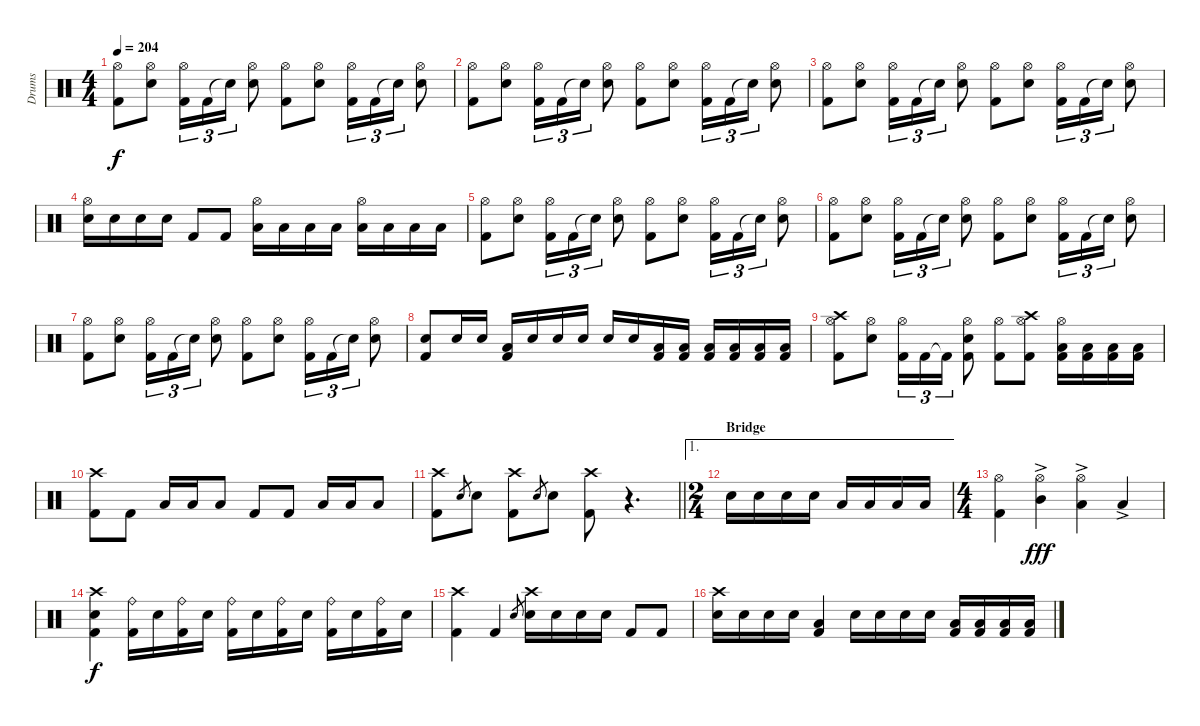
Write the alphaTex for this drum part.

\track ("Drums" "Drums") {instrument percussion}
\staff {score}
\articulation defaults
\ts (4 4)
\tempo 204
\clef neutral
\ks c
("Hi-Hat (open)" "Kick (hit) 2").8{dy f} ("Snare (hit) 2" "Hi-Hat (open)").8 ("Hi-Hat (open)" "Kick (hit) 2").16{tu (3 2)} "Kick (hit) 2".16{tu (3 2)} "Snare (hit)"{t}.16{tu (3 2)} ("Hi-Hat (open)" "Snare (hit) 2").8 ("Kick (hit) 2" "Hi-Hat (open)").8 ("Hi-Hat (open)" "Snare (hit) 2").8 ("Hi-Hat (open)" "Kick (hit) 2").16{tu (3 2)} "Kick (hit) 2".16{tu (3 2)} "Snare (hit) 2"{t}.16{tu (3 2)} ("Snare (hit) 2" "Hi-Hat (open)").8 |
("Hi-Hat (open)" "Kick (hit) 2").8 ("Snare (hit) 2" "Hi-Hat (open)").8 ("Hi-Hat (open)" "Kick (hit) 2").16{tu (3 2)} "Kick (hit) 2".16{tu (3 2)} "Snare (hit)"{t}.16{tu (3 2)} ("Hi-Hat (open)" "Snare (hit) 2").8 ("Kick (hit) 2" "Hi-Hat (open)").8 ("Hi-Hat (open)" "Snare (hit) 2").8 ("Hi-Hat (open)" "Kick (hit) 2").16{tu (3 2)} "Kick (hit) 2".16{tu (3 2)} "Snare (hit) 2"{t}.16{tu (3 2)} ("Snare (hit) 2" "Hi-Hat (open)").8 |
("Hi-Hat (open)" "Kick (hit) 2").8 ("Snare (hit) 2" "Hi-Hat (open)").8 ("Hi-Hat (open)" "Kick (hit) 2").16{tu (3 2)} "Kick (hit) 2".16{tu (3 2)} "Snare (hit)"{t}.16{tu (3 2)} ("Hi-Hat (open)" "Snare (hit) 2").8 ("Kick (hit) 2" "Hi-Hat (open)").8 ("Hi-Hat (open)" "Snare (hit) 2").8 ("Hi-Hat (open)" "Kick (hit) 2").16{tu (3 2)} "Kick (hit) 2".16{tu (3 2)} "Snare (hit) 2"{t}.16{tu (3 2)} ("Snare (hit) 2" "Hi-Hat (open)").8 |
("Hi-Hat (open)" "Snare (hit) 2").16 "Snare (hit) 2".16 "Snare (hit) 2".16 "Snare (hit) 2".16 "Kick (hit) 2".8 "Kick (hit) 2".8 ("Hi-Hat (open)" "Low Tom (hit)").16 "Low Tom (hit)".16 "Low Tom (hit)".16 "Low Tom (hit)".16 ("Hi-Hat (open)" "Low Floor Tom (hit)").16 "Low Floor Tom (hit)".16 "Low Floor Tom (hit)".16 "Low Floor Tom (hit)".16 |
("Hi-Hat (open)" "Kick (hit) 2").8 ("Snare (hit) 2" "Hi-Hat (open)").8 ("Hi-Hat (open)" "Kick (hit) 2").16{tu (3 2)} "Kick (hit) 2".16{tu (3 2)} "Snare (hit)"{t}.16{tu (3 2)} ("Hi-Hat (open)" "Snare (hit) 2").8 ("Kick (hit) 2" "Hi-Hat (open)").8 ("Hi-Hat (open)" "Snare (hit) 2").8 ("Hi-Hat (open)" "Kick (hit) 2").16{tu (3 2)} "Kick (hit) 2".16{tu (3 2)} "Snare (hit) 2"{t}.16{tu (3 2)} ("Snare (hit) 2" "Hi-Hat (open)").8 |
("Hi-Hat (open)" "Kick (hit) 2").8 ("Snare (hit) 2" "Hi-Hat (open)").8 ("Hi-Hat (open)" "Kick (hit) 2").16{tu (3 2)} "Kick (hit) 2".16{tu (3 2)} "Snare (hit)"{t}.16{tu (3 2)} ("Hi-Hat (open)" "Snare (hit) 2").8 ("Kick (hit) 2" "Hi-Hat (open)").8 ("Hi-Hat (open)" "Snare (hit) 2").8 ("Hi-Hat (open)" "Kick (hit) 2").16{tu (3 2)} "Kick (hit) 2".16{tu (3 2)} "Snare (hit) 2"{t}.16{tu (3 2)} ("Snare (hit) 2" "Hi-Hat (open)").8 |
("Hi-Hat (open)" "Kick (hit) 2").8 ("Snare (hit) 2" "Hi-Hat (open)").8 ("Hi-Hat (open)" "Kick (hit) 2").16{tu (3 2)} "Kick (hit) 2".16{tu (3 2)} "Snare (hit)"{t}.16{tu (3 2)} ("Hi-Hat (open)" "Snare (hit) 2").8 ("Kick (hit) 2" "Hi-Hat (open)").8 ("Hi-Hat (open)" "Snare (hit) 2").8 ("Hi-Hat (open)" "Kick (hit) 2").16{tu (3 2)} "Kick (hit) 2".16{tu (3 2)} "Snare (hit) 2"{t}.16{tu (3 2)} ("Snare (hit) 2" "Hi-Hat (open)").8 |
("Snare (hit) 2" "Kick (hit) 2").8 "Snare (hit) 2".16 "Snare (hit) 2".16 ("Low Floor Tom (hit)" "Kick (hit) 2").16 "Snare (hit) 2".16 "Snare (hit) 2".16 "Snare (hit) 2".16 "Snare (hit) 2".16 "Snare (hit) 2".16 ("Kick (hit) 2" "Low Floor Tom (hit)").16 ("Kick (hit) 2" "Low Floor Tom (hit)").16 ("Kick (hit) 2" "Low Floor Tom (hit)").16 ("Kick (hit) 2" "Low Floor Tom (hit)").16 ("Kick (hit) 2" "Low Floor Tom (hit)").16 ("Kick (hit) 2" "Low Floor Tom (hit)").16 |
("Hi-Hat (open)" "Kick (hit) 2" "Crash high (hit)").8 ("Snare (hit) 2" "Hi-Hat (open)").8 ("Hi-Hat (open)" "Kick (hit) 2").16{tu (3 2)} "Kick (hit) 2".16{tu (3 2)} "Kick (hit) 2"{t}.16{tu (3 2)} ("Hi-Hat (open)" "Snare (hit) 2" "Kick (hit) 2").8 ("Hi-Hat (open)" "Kick (hit) 2").8 ("Hi-Hat (open)" "Kick (hit) 2" "Crash high (hit)").8 ("Hi-Hat (open)" "Low Floor Tom (hit)" "Kick (hit) 2").16 ("Low Floor Tom (hit)" "Kick (hit) 2").16 ("Low Floor Tom (hit)" "Kick (hit) 2").16 ("Low Floor Tom (hit)" "Kick (hit) 2").16 |
("Crash high (hit)" "Kick (hit) 2").8 "Kick (hit) 2".8 "Low Floor Tom (hit)".16 "Low Floor Tom (hit)".16 "Low Floor Tom (hit)".8 "Kick (hit) 2".8 "Kick (hit) 2".8 "Low Floor Tom (hit)".16 "Low Floor Tom (hit)".16 "Low Floor Tom (hit)".8 |
\barLineRight lightlight
("Crash high (hit)" "Kick (hit) 2").8 "Snare (hit) 2".8{gr} "Snare (hit) 2".8 ("Crash high (hit)" "Kick (hit) 2").8 "Snare (hit) 2".8{gr} "Snare (hit) 2".8 ("Crash high (hit)" "Kick (hit) 2").8 r.4{d} |
\ae 1
\ts (2 4)
\section ("" "Bridge")
"Snare (hit) 2".16 "Snare (hit) 2".16 "Snare (hit) 2".16 "Snare (hit) 2".16 "Low Floor Tom (hit)".16 "Low Floor Tom (hit)".16 "Low Floor Tom (hit)".16 "Low Floor Tom (hit)".16 |
\ts (4 4)
("Kick (hit) 2" "Hi-Hat (open)").4 ("Hi-Hat (open)" "Mid Tom (hit)"{ac}).4{dy fff} ("Hi-Hat (open)" "Low Tom (hit)"{ac}).4 "Low Floor Tom (hit)"{ac}.4 |
("Crash high (hit)" "Snare (hit) 2" "Kick (hit) 2").4{dy f} ("Ride (bell)" "Kick (hit) 2").16 "Snare (hit) 2".16 ("Ride (bell)" "Kick (hit) 2").16 "Snare (hit) 2".16 ("Ride (bell)" "Kick (hit) 2").16 "Snare (hit) 2".16 ("Ride (bell)" "Kick (hit) 2").16 "Snare (hit) 2".16 ("Ride (bell)" "Kick (hit) 2").16 "Snare (hit) 2".16 ("Ride (bell)" "Kick (hit) 2").16 "Snare (hit) 2".16 |
("Crash high (hit)" "Kick (hit) 2").4 "Kick (hit) 2".4 "Snare (hit) 2".8{gr} ("Crash high (hit)" "Snare (hit) 2").16 "Snare (hit) 2".16 "Snare (hit) 2".16 "Snare (hit) 2".16 "Kick (hit) 2".8 "Kick (hit) 2".8 |
("Crash high (hit)" "Snare (hit) 2").16 "Snare (hit) 2".16 "Snare (hit) 2".16 "Snare (hit) 2".16 ("Low Floor Tom (hit)" "Kick (hit) 2").4 "Snare (hit) 2".16 "Snare (hit) 2".16 "Snare (hit) 2".16 "Snare (hit) 2".16 ("Low Floor Tom (hit)" "Kick (hit) 2").16 ("Low Floor Tom (hit)" "Kick (hit) 2").16 ("Low Floor Tom (hit)" "Kick (hit) 2").16 ("Low Floor Tom (hit)" "Kick (hit) 2").16
